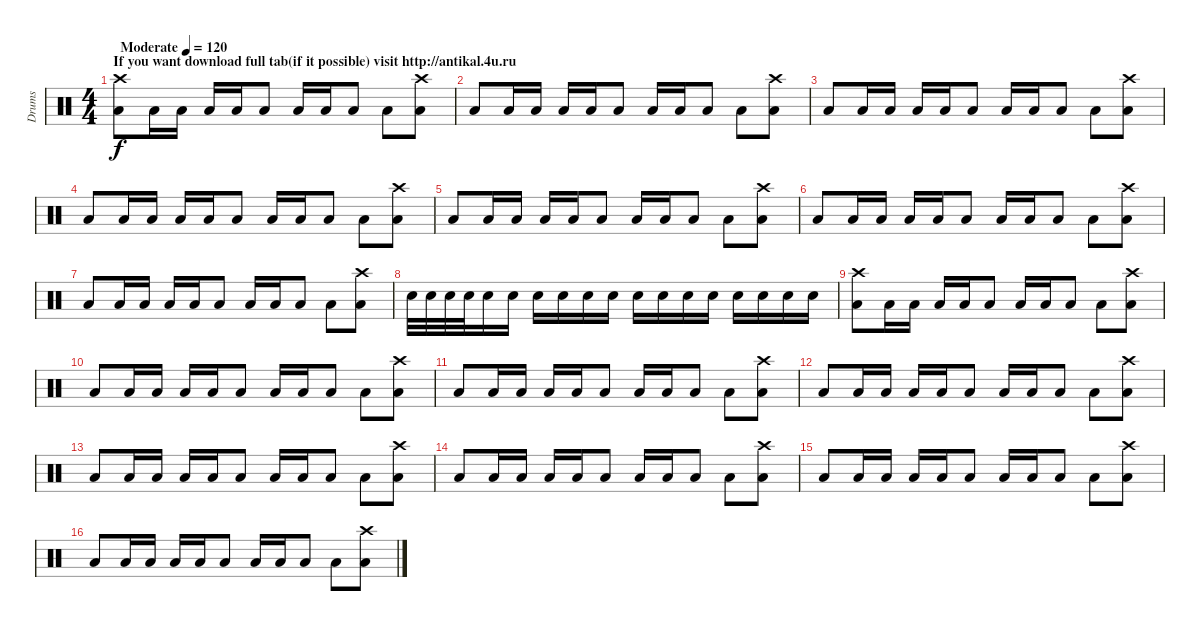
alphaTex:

\track ("Drums" "Drums") {instrument percussion}
\staff {score}
\articulation defaults
\ts (4 4)
\section ("" "If you want download full tab(if it possible) visit http://antikal.4u.ru")
\tempo (120 "Moderate")
\clef neutral
\ks c
("Low Tom (hit)" "Crash high (hit)").8{dy f} "Low Tom (hit)".16 "Low Tom (hit)".16 "Low Tom (hit)".16 "Low Tom (hit)".16 "Low Tom (hit)".8 "Low Tom (hit)".16 "Low Tom (hit)".16 "Low Tom (hit)".8 "Low Tom (hit)".8 ("Low Tom (hit)" "Crash high (hit)").8 |
"Low Tom (hit)".8 "Low Tom (hit)".16 "Low Tom (hit)".16 "Low Tom (hit)".16 "Low Tom (hit)".16 "Low Tom (hit)".8 "Low Tom (hit)".16 "Low Tom (hit)".16 "Low Tom (hit)".8 "Low Tom (hit)".8 ("Low Tom (hit)" "Crash high (hit)").8 |
"Low Tom (hit)".8 "Low Tom (hit)".16 "Low Tom (hit)".16 "Low Tom (hit)".16 "Low Tom (hit)".16 "Low Tom (hit)".8 "Low Tom (hit)".16 "Low Tom (hit)".16 "Low Tom (hit)".8 "Low Tom (hit)".8 ("Low Tom (hit)" "Crash high (hit)").8 |
"Low Tom (hit)".8 "Low Tom (hit)".16 "Low Tom (hit)".16 "Low Tom (hit)".16 "Low Tom (hit)".16 "Low Tom (hit)".8 "Low Tom (hit)".16 "Low Tom (hit)".16 "Low Tom (hit)".8 "Low Tom (hit)".8 ("Low Tom (hit)" "Crash high (hit)").8 |
"Low Tom (hit)".8 "Low Tom (hit)".16 "Low Tom (hit)".16 "Low Tom (hit)".16 "Low Tom (hit)".16 "Low Tom (hit)".8 "Low Tom (hit)".16 "Low Tom (hit)".16 "Low Tom (hit)".8 "Low Tom (hit)".8 ("Low Tom (hit)" "Crash high (hit)").8 |
"Low Tom (hit)".8 "Low Tom (hit)".16 "Low Tom (hit)".16 "Low Tom (hit)".16 "Low Tom (hit)".16 "Low Tom (hit)".8 "Low Tom (hit)".16 "Low Tom (hit)".16 "Low Tom (hit)".8 "Low Tom (hit)".8 ("Low Tom (hit)" "Crash high (hit)").8 |
"Low Tom (hit)".8 "Low Tom (hit)".16 "Low Tom (hit)".16 "Low Tom (hit)".16 "Low Tom (hit)".16 "Low Tom (hit)".8 "Low Tom (hit)".16 "Low Tom (hit)".16 "Low Tom (hit)".8 "Low Tom (hit)".8 ("Low Tom (hit)" "Crash high (hit)").8 |
"Electric Snare (hit)".32 "Electric Snare (hit)".32 "Electric Snare (hit)".32 "Electric Snare (hit)".32 "Electric Snare (hit)".16 "Electric Snare (hit)".16 "Electric Snare (hit)".16 "Electric Snare (hit)".16 "Electric Snare (hit)".16 "Electric Snare (hit)".16 "Electric Snare (hit)".16 "Electric Snare (hit)".16 "Electric Snare (hit)".16 "Electric Snare (hit)".16 "Electric Snare (hit)".16 "Electric Snare (hit)".16 "Electric Snare (hit)".16 "Electric Snare (hit)".16 |
("Low Tom (hit)" "Crash high (hit)").8 "Low Tom (hit)".16 "Low Tom (hit)".16 "Low Tom (hit)".16 "Low Tom (hit)".16 "Low Tom (hit)".8 "Low Tom (hit)".16 "Low Tom (hit)".16 "Low Tom (hit)".8 "Low Tom (hit)".8 ("Low Tom (hit)" "Crash high (hit)").8 |
"Low Tom (hit)".8 "Low Tom (hit)".16 "Low Tom (hit)".16 "Low Tom (hit)".16 "Low Tom (hit)".16 "Low Tom (hit)".8 "Low Tom (hit)".16 "Low Tom (hit)".16 "Low Tom (hit)".8 "Low Tom (hit)".8 ("Low Tom (hit)" "Crash high (hit)").8 |
"Low Tom (hit)".8 "Low Tom (hit)".16 "Low Tom (hit)".16 "Low Tom (hit)".16 "Low Tom (hit)".16 "Low Tom (hit)".8 "Low Tom (hit)".16 "Low Tom (hit)".16 "Low Tom (hit)".8 "Low Tom (hit)".8 ("Low Tom (hit)" "Crash high (hit)").8 |
"Low Tom (hit)".8 "Low Tom (hit)".16 "Low Tom (hit)".16 "Low Tom (hit)".16 "Low Tom (hit)".16 "Low Tom (hit)".8 "Low Tom (hit)".16 "Low Tom (hit)".16 "Low Tom (hit)".8 "Low Tom (hit)".8 ("Low Tom (hit)" "Crash high (hit)").8 |
"Low Tom (hit)".8 "Low Tom (hit)".16 "Low Tom (hit)".16 "Low Tom (hit)".16 "Low Tom (hit)".16 "Low Tom (hit)".8 "Low Tom (hit)".16 "Low Tom (hit)".16 "Low Tom (hit)".8 "Low Tom (hit)".8 ("Low Tom (hit)" "Crash high (hit)").8 |
"Low Tom (hit)".8 "Low Tom (hit)".16 "Low Tom (hit)".16 "Low Tom (hit)".16 "Low Tom (hit)".16 "Low Tom (hit)".8 "Low Tom (hit)".16 "Low Tom (hit)".16 "Low Tom (hit)".8 "Low Tom (hit)".8 ("Low Tom (hit)" "Crash high (hit)").8 |
"Low Tom (hit)".8 "Low Tom (hit)".16 "Low Tom (hit)".16 "Low Tom (hit)".16 "Low Tom (hit)".16 "Low Tom (hit)".8 "Low Tom (hit)".16 "Low Tom (hit)".16 "Low Tom (hit)".8 "Low Tom (hit)".8 ("Low Tom (hit)" "Crash high (hit)").8 |
"Low Tom (hit)".8 "Low Tom (hit)".16 "Low Tom (hit)".16 "Low Tom (hit)".16 "Low Tom (hit)".16 "Low Tom (hit)".8 "Low Tom (hit)".16 "Low Tom (hit)".16 "Low Tom (hit)".8 "Low Tom (hit)".8 ("Low Tom (hit)" "Crash high (hit)").8
